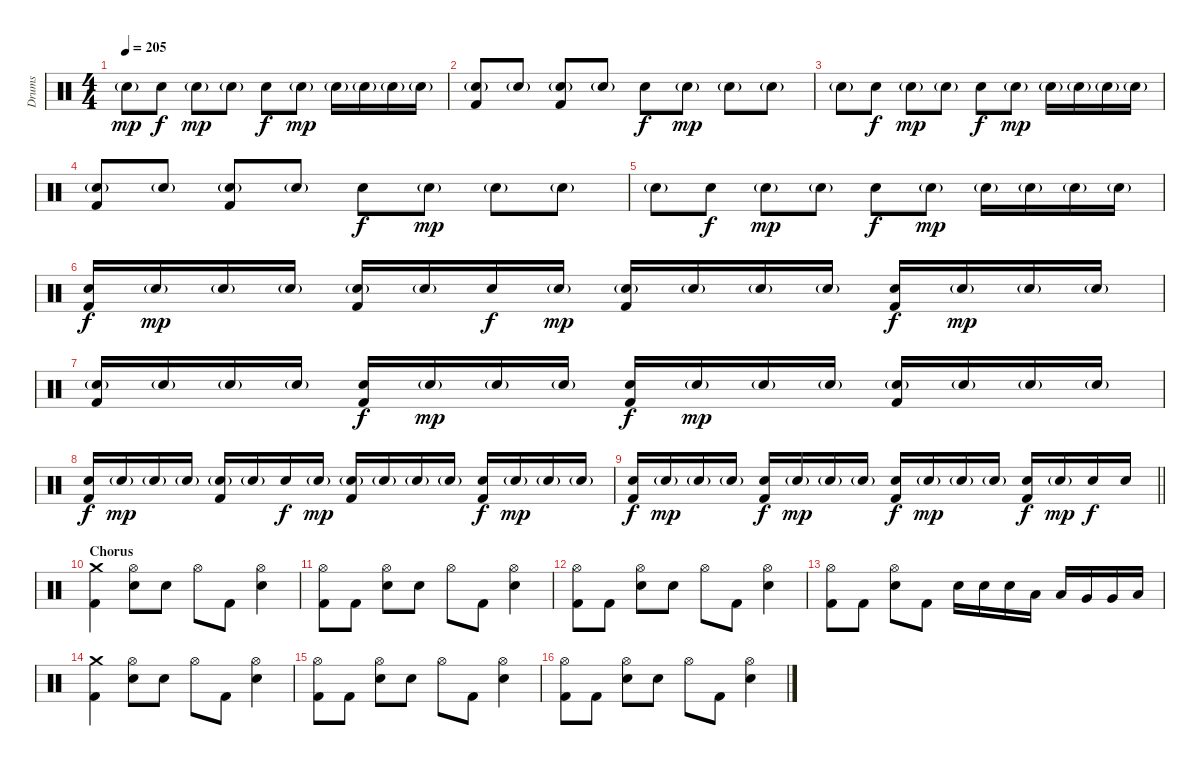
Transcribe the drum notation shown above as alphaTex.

\track ("Drums" "Drums") {instrument percussion}
\staff {score}
\articulation defaults
\ts (4 4)
\tempo 205
\clef neutral
\ks c "Electric Snare (hit)"{g}.8{dy mp} "Electric Snare (hit)".8{dy f} "Electric Snare (hit)"{g}.8{dy mp} "Electric Snare (hit)"{g}.8 "Electric Snare (hit)".8{dy f} "Electric Snare (hit)"{g}.8{dy mp} "Electric Snare (hit)"{g}.16 "Electric Snare (hit)"{g}.16 "Electric Snare (hit)"{g}.16 "Electric Snare (hit)"{g}.16
|
("Electric Snare (hit)"{g} "Kick (hit) 2").8 "Electric Snare (hit)"{g}.8 ("Electric Snare (hit)"{g} "Kick (hit) 2").8 "Electric Snare (hit)"{g}.8 "Electric Snare (hit)".8{dy f} "Electric Snare (hit)"{g}.8{dy mp} "Electric Snare (hit)"{g}.8 "Electric Snare (hit)"{g}.8 |
"Electric Snare (hit)"{g}.8 "Electric Snare (hit)".8{dy f} "Electric Snare (hit)"{g}.8{dy mp} "Electric Snare (hit)"{g}.8 "Electric Snare (hit)".8{dy f} "Electric Snare (hit)"{g}.8{dy mp} "Electric Snare (hit)"{g}.16 "Electric Snare (hit)"{g}.16 "Electric Snare (hit)"{g}.16 "Electric Snare (hit)"{g}.16 |
("Electric Snare (hit)"{g} "Kick (hit) 2").8 "Electric Snare (hit)"{g}.8 ("Electric Snare (hit)"{g} "Kick (hit) 2").8 "Electric Snare (hit)"{g}.8 "Electric Snare (hit)".8{dy f} "Electric Snare (hit)"{g}.8{dy mp} "Electric Snare (hit)"{g}.8 "Electric Snare (hit)"{g}.8 |
"Electric Snare (hit)"{g}.8 "Electric Snare (hit)".8{dy f} "Electric Snare (hit)"{g}.8{dy mp} "Electric Snare (hit)"{g}.8 "Electric Snare (hit)".8{dy f} "Electric Snare (hit)"{g}.8{dy mp} "Electric Snare (hit)"{g}.16 "Electric Snare (hit)"{g}.16 "Electric Snare (hit)"{g}.16 "Electric Snare (hit)"{g}.16 |
("Electric Snare (hit)" "Kick (hit) 2").16{dy f} "Electric Snare (hit)"{g}.16{dy mp} "Electric Snare (hit)"{g}.16 "Electric Snare (hit)"{g}.16 ("Electric Snare (hit)"{g} "Kick (hit) 2").16 "Electric Snare (hit)"{g}.16 "Electric Snare (hit)".16{dy f} "Electric Snare (hit)"{g}.16{dy mp} ("Electric Snare (hit)"{g} "Kick (hit) 2").16 "Electric Snare (hit)"{g}.16 "Electric Snare (hit)"{g}.16 "Electric Snare (hit)"{g}.16 ("Electric Snare (hit)" "Kick (hit) 2").16{dy f} "Electric Snare (hit)"{g}.16{dy mp} "Electric Snare (hit)"{g}.16 "Electric Snare (hit)"{g}.16 |
("Electric Snare (hit)"{g} "Kick (hit) 2").16 "Electric Snare (hit)"{g}.16 "Electric Snare (hit)"{g}.16 "Electric Snare (hit)"{g}.16 ("Electric Snare (hit)" "Kick (hit) 2").16{dy f} "Electric Snare (hit)"{g}.16{dy mp} "Electric Snare (hit)"{g}.16 "Electric Snare (hit)"{g}.16 ("Electric Snare (hit)" "Kick (hit) 2").16{dy f} "Electric Snare (hit)"{g}.16{dy mp} "Electric Snare (hit)"{g}.16 "Electric Snare (hit)"{g}.16 ("Electric Snare (hit)"{g} "Kick (hit) 2").16 "Electric Snare (hit)"{g}.16 "Electric Snare (hit)"{g}.16 "Electric Snare (hit)"{g}.16 |
("Electric Snare (hit)" "Kick (hit) 2").16{dy f} "Electric Snare (hit)"{g}.16{dy mp} "Electric Snare (hit)"{g}.16 "Electric Snare (hit)"{g}.16 ("Electric Snare (hit)"{g} "Kick (hit) 2").16 "Electric Snare (hit)"{g}.16 "Electric Snare (hit)".16{dy f} "Electric Snare (hit)"{g}.16{dy mp} ("Electric Snare (hit)"{g} "Kick (hit) 2").16 "Electric Snare (hit)"{g}.16 "Electric Snare (hit)"{g}.16 "Electric Snare (hit)"{g}.16 ("Electric Snare (hit)" "Kick (hit) 2").16{dy f} "Electric Snare (hit)"{g}.16{dy mp} "Electric Snare (hit)"{g}.16 "Electric Snare (hit)"{g}.16 |
\barLineRight lightlight
("Electric Snare (hit)" "Kick (hit) 2").16{dy f} "Electric Snare (hit)"{g}.16{dy mp} "Electric Snare (hit)"{g}.16 "Electric Snare (hit)"{g}.16 ("Electric Snare (hit)" "Kick (hit) 2").16{dy f} "Electric Snare (hit)"{g}.16{dy mp} "Electric Snare (hit)"{g}.16 "Electric Snare (hit)"{g}.16 ("Electric Snare (hit)" "Kick (hit) 2").16{dy f} "Electric Snare (hit)"{g}.16{dy mp} "Electric Snare (hit)"{g}.16 "Electric Snare (hit)"{g}.16 ("Electric Snare (hit)" "Kick (hit) 2").16{dy f} "Electric Snare (hit)"{g}.16{dy mp} "Electric Snare (hit)".16{dy f} "Electric Snare (hit)".16 |
\section ("" "Chorus")
("Crash medium (hit)" "Kick (hit) 2").4 ("Hi-Hat (open)" "Electric Snare (hit)").8 "Electric Snare (hit)".8 "Hi-Hat (open)".8 "Kick (hit) 2".8 ("Hi-Hat (open)" "Electric Snare (hit)").4 |
("Hi-Hat (open)" "Kick (hit) 2").8 "Kick (hit) 2".8 ("Hi-Hat (open)" "Electric Snare (hit)").8 "Electric Snare (hit)".8 "Hi-Hat (open)".8 "Kick (hit) 2".8 ("Hi-Hat (open)" "Electric Snare (hit)").4 |
("Hi-Hat (open)" "Kick (hit) 2").8 "Kick (hit) 2".8 ("Hi-Hat (open)" "Electric Snare (hit)").8 "Electric Snare (hit)".8 "Hi-Hat (open)".8 "Kick (hit) 2".8 ("Hi-Hat (open)" "Electric Snare (hit)").4 |
("Hi-Hat (open)" "Kick (hit) 2").8 "Kick (hit) 2".8 ("Hi-Hat (open)" "Electric Snare (hit)").8 "Kick (hit) 2".8 "Electric Snare (hit)".16 "Electric Snare (hit)".16 "Electric Snare (hit)".16 "Low Tom (hit)".16 "Low Tom (hit)".16 "Very Low Tom (hit)".16 "Very Low Tom (hit)".16 "Low Floor Tom (hit)".16 |
("Crash medium (hit)" "Kick (hit) 2").4 ("Hi-Hat (open)" "Electric Snare (hit)").8 "Electric Snare (hit)".8 "Hi-Hat (open)".8 "Kick (hit) 2".8 ("Hi-Hat (open)" "Electric Snare (hit)").4 |
("Hi-Hat (open)" "Kick (hit) 2").8 "Kick (hit) 2".8 ("Hi-Hat (open)" "Electric Snare (hit)").8 "Electric Snare (hit)".8 "Hi-Hat (open)".8 "Kick (hit) 2".8 ("Hi-Hat (open)" "Electric Snare (hit)").4 |
("Hi-Hat (open)" "Kick (hit) 2").8 "Kick (hit) 2".8 ("Hi-Hat (open)" "Electric Snare (hit)").8 "Electric Snare (hit)".8 "Hi-Hat (open)".8 "Kick (hit) 2".8 ("Hi-Hat (open)" "Electric Snare (hit)").4
